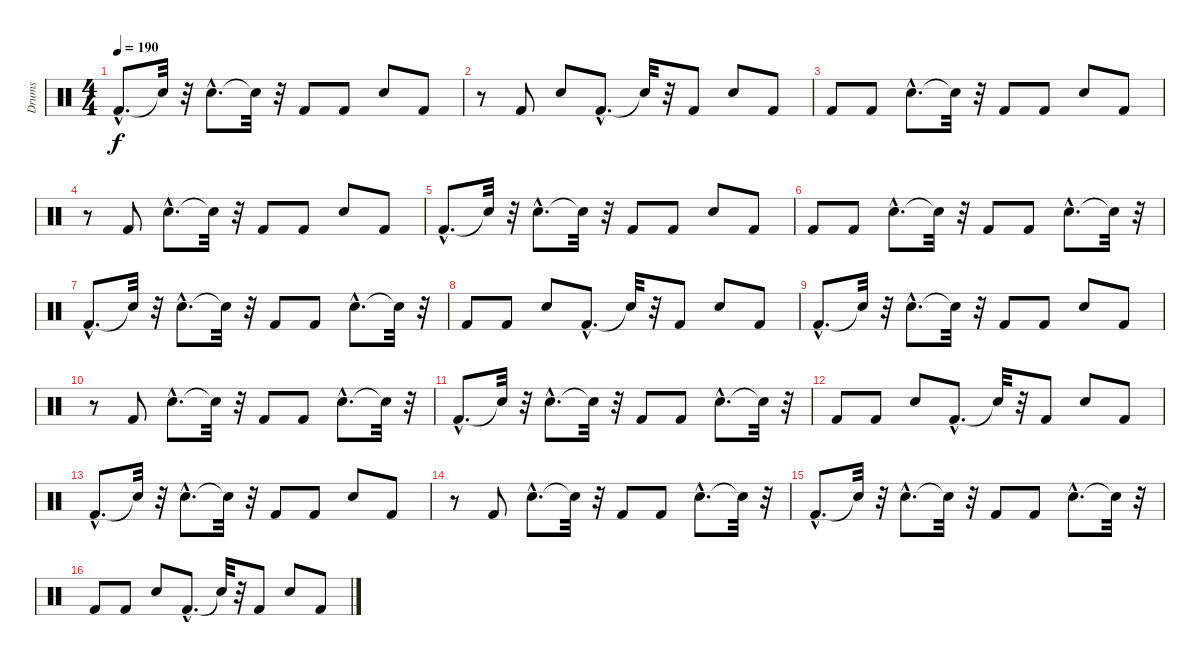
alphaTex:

\track ("Drums" "Drums") {instrument percussion}
\staff {score}
\articulation defaults
\ts (4 4)
\tempo 190
\clef neutral
\ks c "Kick (hit) 2"{hac}.8{d dy f} "Snare (hit)"{t}.32
r.32 "Electric Snare (hit)"{hac}.8{d} "Snare (hit)"{t}.32 r.32 "Kick (hit) 2".8 "Kick (hit) 2".8 "Electric Snare (hit)".8 "Kick (hit) 2".8 |
r.8 "Kick (hit) 2".8 "Electric Snare (hit)".8 "Kick (hit) 2"{hac}.8{d} "Snare (hit)"{t}.32 r.32 "Kick (hit) 2".8 "Electric Snare (hit)".8 "Kick (hit) 2".8 |
"Kick (hit) 2".8 "Kick (hit) 2".8 "Electric Snare (hit)"{hac}.8{d} "Snare (hit)"{t}.32 r.32 "Kick (hit) 2".8 "Kick (hit) 2".8 "Electric Snare (hit)".8 "Kick (hit) 2".8 |
r.8 "Kick (hit) 2".8 "Electric Snare (hit)"{hac}.8{d} "Snare (hit)"{t}.32 r.32 "Kick (hit) 2".8 "Kick (hit) 2".8 "Electric Snare (hit)".8 "Kick (hit) 2".8 |
"Kick (hit) 2"{hac}.8{d} "Snare (hit)"{t}.32 r.32 "Electric Snare (hit)"{hac}.8{d} "Snare (hit)"{t}.32 r.32 "Kick (hit) 2".8 "Kick (hit) 2".8 "Electric Snare (hit)".8 "Kick (hit) 2".8 |
"Kick (hit) 2".8 "Kick (hit) 2".8 "Electric Snare (hit)"{hac}.8{d} "Snare (hit)"{t}.32 r.32 "Kick (hit) 2".8 "Kick (hit) 2".8 "Electric Snare (hit)"{hac}.8{d} "Snare (hit)"{t}.32 r.32 |
"Kick (hit) 2"{hac}.8{d} "Snare (hit)"{t}.32 r.32 "Electric Snare (hit)"{hac}.8{d} "Snare (hit)"{t}.32 r.32 "Kick (hit) 2".8 "Kick (hit) 2".8 "Electric Snare (hit)"{hac}.8{d} "Snare (hit)"{t}.32 r.32 |
"Kick (hit) 2".8 "Kick (hit) 2".8 "Electric Snare (hit)".8 "Kick (hit) 2"{hac}.8{d} "Snare (hit)"{t}.32 r.32 "Kick (hit) 2".8 "Electric Snare (hit)".8 "Kick (hit) 2".8 |
"Kick (hit) 2"{hac}.8{d} "Snare (hit)"{t}.32 r.32 "Electric Snare (hit)"{hac}.8{d} "Snare (hit)"{t}.32 r.32 "Kick (hit) 2".8 "Kick (hit) 2".8 "Electric Snare (hit)".8 "Kick (hit) 2".8 |
r.8 "Kick (hit) 2".8 "Electric Snare (hit)"{hac}.8{d} "Snare (hit)"{t}.32 r.32 "Kick (hit) 2".8 "Kick (hit) 2".8 "Electric Snare (hit)"{hac}.8{d} "Snare (hit)"{t}.32 r.32 |
"Kick (hit) 2"{hac}.8{d} "Snare (hit)"{t}.32 r.32 "Electric Snare (hit)"{hac}.8{d} "Snare (hit)"{t}.32 r.32 "Kick (hit) 2".8 "Kick (hit) 2".8 "Electric Snare (hit)"{hac}.8{d} "Snare (hit)"{t}.32 r.32 |
"Kick (hit) 2".8 "Kick (hit) 2".8 "Electric Snare (hit)".8 "Kick (hit) 2"{hac}.8{d} "Snare (hit)"{t}.32 r.32 "Kick (hit) 2".8 "Electric Snare (hit)".8 "Kick (hit) 2".8 |
"Kick (hit) 2"{hac}.8{d} "Snare (hit)"{t}.32 r.32 "Electric Snare (hit)"{hac}.8{d} "Snare (hit)"{t}.32 r.32 "Kick (hit) 2".8 "Kick (hit) 2".8 "Electric Snare (hit)".8 "Kick (hit) 2".8 |
r.8 "Kick (hit) 2".8 "Electric Snare (hit)"{hac}.8{d} "Snare (hit)"{t}.32 r.32 "Kick (hit) 2".8 "Kick (hit) 2".8 "Electric Snare (hit)"{hac}.8{d} "Snare (hit)"{t}.32 r.32 |
"Kick (hit) 2"{hac}.8{d} "Snare (hit)"{t}.32 r.32 "Electric Snare (hit)"{hac}.8{d} "Snare (hit)"{t}.32 r.32 "Kick (hit) 2".8 "Kick (hit) 2".8 "Electric Snare (hit)"{hac}.8{d} "Snare (hit)"{t}.32 r.32 |
"Kick (hit) 2".8 "Kick (hit) 2".8 "Electric Snare (hit)".8 "Kick (hit) 2"{hac}.8{d} "Snare (hit)"{t}.32 r.32 "Kick (hit) 2".8 "Electric Snare (hit)".8 "Kick (hit) 2".8
